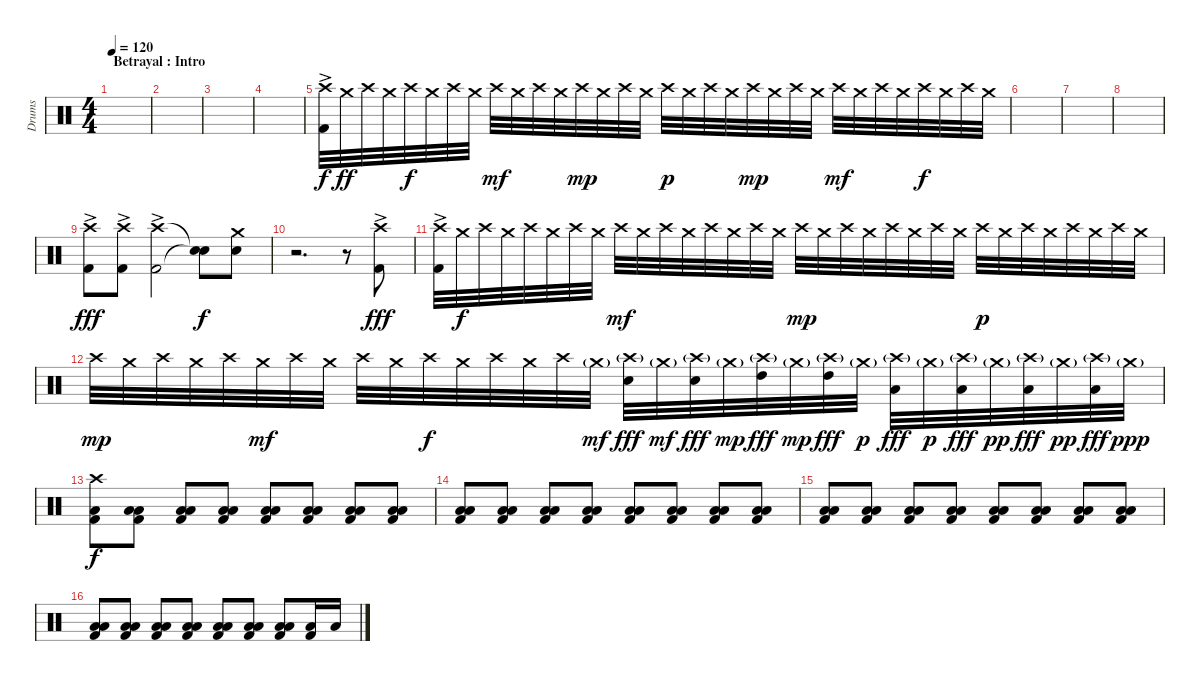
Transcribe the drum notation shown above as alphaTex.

\track ("Drums" "Drums") {instrument percussion}
\staff {score}
\articulation defaults
\ts (4 4)
\section ("" "Betrayal : Intro")
\tempo 120
\clef neutral
\ks c
|
|
|
|
("Crash high (hit)" "Kick (hit) 2"{ac}).32 "Crash medium (hit)".32{dy ff} "Crash high (hit)".32 "Crash medium (hit)".32 "Crash high (hit)".32{dy f} "Crash medium (hit)".32 "Crash high (hit)".32 "Crash medium (hit)".32 "Crash high (hit)".32{dy mf} "Crash medium (hit)".32 "Crash high (hit)".32 "Crash medium (hit)".32 "Crash high (hit)".32{dy mp} "Crash medium (hit)".32 "Crash high (hit)".32 "Crash medium (hit)".32 "Crash high (hit)".32{dy p} "Crash medium (hit)".32 "Crash high (hit)".32 "Crash medium (hit)".32 "Crash high (hit)".32{dy mp} "Crash medium (hit)".32 "Crash high (hit)".32 "Crash medium (hit)".32 "Crash high (hit)".32{dy mf} "Crash medium (hit)".32 "Crash high (hit)".32 "Crash medium (hit)".32 "Crash high (hit)".32{dy f} "Crash medium (hit)".32 "Crash high (hit)".32 "Crash medium (hit)".32 |
|
|
|
("Crash high (hit)"{ac} "Kick (hit) 2"{ac}).8{dy fff} ("Crash high (hit)"{ac} "Kick (hit) 2"{ac}).8 ("Crash high (hit)" "Kick (hit) 2"{ac}).2 ("Snare (hit)"{t} "Electric Snare (hit)"{t}).8{dy f} ("Crash medium (hit)" "Electric Snare (hit)").8 |
r.2{d} r.8 ("Crash high (hit)" "Kick (hit) 2"{ac}).8{dy fff} |
("Crash high (hit)" "Kick (hit) 2"{ac}).32 "Crash medium (hit)".32{dy f} "Crash high (hit)".32 "Crash medium (hit)".32 "Crash high (hit)".32 "Crash medium (hit)".32 "Crash high (hit)".32 "Crash medium (hit)".32 "Crash high (hit)".32{dy mf} "Crash medium (hit)".32 "Crash high (hit)".32 "Crash medium (hit)".32 "Crash high (hit)".32 "Crash medium (hit)".32 "Crash high (hit)".32 "Crash medium (hit)".32 "Crash high (hit)".32{dy mp} "Crash medium (hit)".32 "Crash high (hit)".32 "Crash medium (hit)".32 "Crash high (hit)".32 "Crash medium (hit)".32 "Crash high (hit)".32 "Crash medium (hit)".32 "Crash high (hit)".32{dy p} "Crash medium (hit)".32 "Crash high (hit)".32 "Crash medium (hit)".32 "Crash high (hit)".32 "Crash medium (hit)".32 "Crash high (hit)".32 "Crash medium (hit)".32 |
"Crash high (hit)".32{dy mp} "Crash medium (hit)".32 "Crash high (hit)".32 "Crash medium (hit)".32 "Crash high (hit)".32 "Crash medium (hit)".32{dy mf} "Crash high (hit)".32 "Crash medium (hit)".32 "Crash high (hit)".32 "Crash medium (hit)".32 "Crash high (hit)".32{dy f} "Crash medium (hit)".32 "Crash high (hit)".32 "Crash medium (hit)".32 "Crash high (hit)".32 "Crash medium (hit)"{g}.32{dy mf} ("Crash high (hit)"{g} "Electric Snare (hit)").32{dy fff} "Crash medium (hit)"{g}.32{dy mf} ("Crash high (hit)"{g} "Electric Snare (hit)").32{dy fff} "Crash medium (hit)"{g}.32{dy mp} ("Crash high (hit)"{g} "High Tom (hit)").32{dy fff} "Crash medium (hit)"{g}.32{dy mp} ("Crash high (hit)"{g} "High Tom (hit)").32{dy fff} "Crash medium (hit)"{g}.32{dy p} ("Crash high (hit)"{g} "Low Tom (hit)").32{dy fff} "Crash medium (hit)"{g}.32{dy p} ("Crash high (hit)"{g} "Low Tom (hit)").32{dy fff} "Crash medium (hit)"{g}.32{dy pp} ("Crash high (hit)"{g} "Low Floor Tom (hit)").32{dy fff} "Crash medium (hit)"{g}.32{dy pp} ("Crash high (hit)"{g} "Low Floor Tom (hit)").32{dy fff} "Crash medium (hit)"{g}.32{dy ppp} |
("Crash high (hit)" "Low Tom (hit)" "Kick (hit) 2").8{dy f} ("Low Floor Tom (hit)" "Low Tom (hit)" "Kick (hit) 2").8 ("Low Floor Tom (hit)" "Low Tom (hit)" "Kick (hit) 2").8 ("Low Floor Tom (hit)" "Low Tom (hit)" "Kick (hit) 2").8 ("Low Floor Tom (hit)" "Low Tom (hit)" "Kick (hit) 2").8 ("Low Floor Tom (hit)" "Low Tom (hit)" "Kick (hit) 2").8 ("Low Floor Tom (hit)" "Low Tom (hit)" "Kick (hit) 2").8 ("Low Floor Tom (hit)" "Low Tom (hit)" "Kick (hit) 2").8 |
("Low Floor Tom (hit)" "Low Tom (hit)" "Kick (hit) 2").8 ("Low Floor Tom (hit)" "Low Tom (hit)" "Kick (hit) 2").8 ("Low Floor Tom (hit)" "Low Tom (hit)" "Kick (hit) 2").8 ("Low Floor Tom (hit)" "Low Tom (hit)" "Kick (hit) 2").8 ("Low Floor Tom (hit)" "Low Tom (hit)" "Kick (hit) 2").8 ("Low Floor Tom (hit)" "Low Tom (hit)" "Kick (hit) 2").8 ("Low Floor Tom (hit)" "Low Tom (hit)" "Kick (hit) 2").8 ("Low Floor Tom (hit)" "Low Tom (hit)" "Kick (hit) 2").8 |
("Low Floor Tom (hit)" "Low Tom (hit)" "Kick (hit) 2").8 ("Low Floor Tom (hit)" "Low Tom (hit)" "Kick (hit) 2").8 ("Low Floor Tom (hit)" "Low Tom (hit)" "Kick (hit) 2").8 ("Low Floor Tom (hit)" "Low Tom (hit)" "Kick (hit) 2").8 ("Low Floor Tom (hit)" "Low Tom (hit)" "Kick (hit) 2").8 ("Low Floor Tom (hit)" "Low Tom (hit)" "Kick (hit) 2").8 ("Low Floor Tom (hit)" "Low Tom (hit)" "Kick (hit) 2").8 ("Low Floor Tom (hit)" "Low Tom (hit)" "Kick (hit) 2").8 |
("Low Floor Tom (hit)" "Low Tom (hit)" "Kick (hit) 2").8 ("Low Floor Tom (hit)" "Low Tom (hit)" "Kick (hit) 2").8 ("Low Floor Tom (hit)" "Low Tom (hit)" "Kick (hit) 2").8 ("Low Floor Tom (hit)" "Low Tom (hit)" "Kick (hit) 2").8 ("Low Floor Tom (hit)" "Low Tom (hit)" "Kick (hit) 2").8 ("Low Floor Tom (hit)" "Low Tom (hit)" "Kick (hit) 2").8 ("Low Floor Tom (hit)" "Low Tom (hit)" "Kick (hit) 2").8 ("Low Floor Tom (hit)" "Kick (hit) 2").16 "Low Tom (hit)".16
